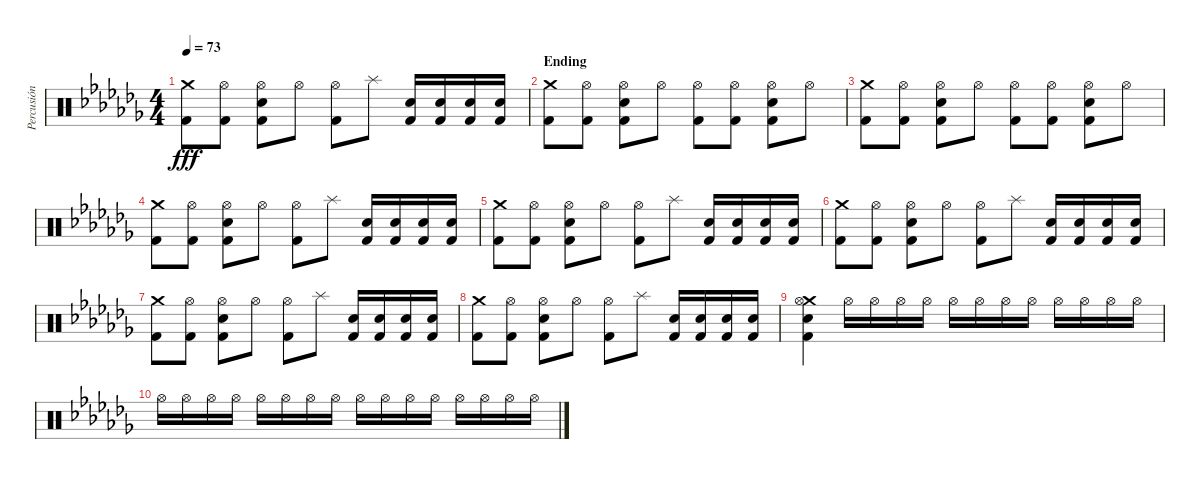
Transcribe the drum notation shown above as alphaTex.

\track ("Percusión" "Percusión") {instrument percussion}
\staff {score}
\articulation defaults
\ts (4 4)
\tempo 73
\clef neutral
\ks abminor
("Crash medium (hit)" "Kick (hit) 2").8{dy fff} ("Hi-Hat (open)" "Kick (hit) 2").8 ("Hi-Hat (open)" "Snare (hit) 2" "Kick (hit) 2").8 "Hi-Hat (open)".8 ("Hi-Hat (open)" "Kick (hit) 2").8 "Splash (hit)".8 ("Snare (hit) 2" "Kick (hit) 2").16 ("Snare (hit) 2" "Kick (hit) 2").16 ("Snare (hit) 2" "Kick (hit) 2").16 ("Snare (hit) 2" "Kick (hit) 2").16 |
\section ("" "Ending")
("Crash medium (hit)" "Kick (hit) 2").8 ("Hi-Hat (open)" "Kick (hit) 2").8 ("Hi-Hat (open)" "Snare (hit) 2" "Kick (hit) 2").8 "Hi-Hat (open)".8 ("Hi-Hat (open)" "Kick (hit) 2").8 ("Hi-Hat (open)" "Kick (hit) 2").8 ("Hi-Hat (open)" "Snare (hit) 2" "Kick (hit) 2").8 "Hi-Hat (open)".8 |
("Crash medium (hit)" "Kick (hit) 2").8 ("Hi-Hat (open)" "Kick (hit) 2").8 ("Hi-Hat (open)" "Snare (hit) 2" "Kick (hit) 2").8 "Hi-Hat (open)".8 ("Hi-Hat (open)" "Kick (hit) 2").8 ("Hi-Hat (open)" "Kick (hit) 2").8 ("Hi-Hat (open)" "Snare (hit) 2" "Kick (hit) 2").8 "Hi-Hat (open)".8 |
("Crash medium (hit)" "Kick (hit) 2").8 ("Hi-Hat (open)" "Kick (hit) 2").8 ("Hi-Hat (open)" "Snare (hit) 2" "Kick (hit) 2").8 "Hi-Hat (open)".8 ("Hi-Hat (open)" "Kick (hit) 2").8 "Splash (hit)".8 ("Snare (hit) 2" "Kick (hit) 2").16 ("Snare (hit) 2" "Kick (hit) 2").16 ("Snare (hit) 2" "Kick (hit) 2").16 ("Snare (hit) 2" "Kick (hit) 2").16 |
("Crash medium (hit)" "Kick (hit) 2").8 ("Hi-Hat (open)" "Kick (hit) 2").8 ("Hi-Hat (open)" "Snare (hit) 2" "Kick (hit) 2").8 "Hi-Hat (open)".8 ("Hi-Hat (open)" "Kick (hit) 2").8 "Splash (hit)".8 ("Snare (hit) 2" "Kick (hit) 2").16 ("Snare (hit) 2" "Kick (hit) 2").16 ("Snare (hit) 2" "Kick (hit) 2").16 ("Snare (hit) 2" "Kick (hit) 2").16 |
("Crash medium (hit)" "Kick (hit) 2").8 ("Hi-Hat (open)" "Kick (hit) 2").8 ("Hi-Hat (open)" "Snare (hit) 2" "Kick (hit) 2").8 "Hi-Hat (open)".8 ("Hi-Hat (open)" "Kick (hit) 2").8 "Splash (hit)".8 ("Snare (hit) 2" "Kick (hit) 2").16 ("Snare (hit) 2" "Kick (hit) 2").16 ("Snare (hit) 2" "Kick (hit) 2").16 ("Snare (hit) 2" "Kick (hit) 2").16 |
("Crash medium (hit)" "Kick (hit) 2").8 ("Hi-Hat (open)" "Kick (hit) 2").8 ("Hi-Hat (open)" "Snare (hit) 2" "Kick (hit) 2").8 "Hi-Hat (open)".8 ("Hi-Hat (open)" "Kick (hit) 2").8 "Splash (hit)".8 ("Snare (hit) 2" "Kick (hit) 2").16 ("Snare (hit) 2" "Kick (hit) 2").16 ("Snare (hit) 2" "Kick (hit) 2").16 ("Snare (hit) 2" "Kick (hit) 2").16 |
("Crash medium (hit)" "Kick (hit) 2").8 ("Hi-Hat (open)" "Kick (hit) 2").8 ("Hi-Hat (open)" "Snare (hit) 2" "Kick (hit) 2").8 "Hi-Hat (open)".8 ("Hi-Hat (open)" "Kick (hit) 2").8 "Splash (hit)".8 ("Snare (hit) 2" "Kick (hit) 2").16 ("Snare (hit) 2" "Kick (hit) 2").16 ("Snare (hit) 2" "Kick (hit) 2").16 ("Snare (hit) 2" "Kick (hit) 2").16 |
("Crash medium (hit)" "Hi-Hat (open)" "Snare (hit) 2" "Kick (hit) 2").4 "Hi-Hat (open)".16{volume 0} "Hi-Hat (open)".16 "Hi-Hat (open)".16 "Hi-Hat (open)".16 "Hi-Hat (open)".16 "Hi-Hat (open)".16 "Hi-Hat (open)".16 "Hi-Hat (open)".16 "Hi-Hat (open)".16 "Hi-Hat (open)".16 "Hi-Hat (open)".16 "Hi-Hat (open)".16 |
"Hi-Hat (open)".16 "Hi-Hat (open)".16 "Hi-Hat (open)".16 "Hi-Hat (open)".16 "Hi-Hat (open)".16 "Hi-Hat (open)".16 "Hi-Hat (open)".16 "Hi-Hat (open)".16 "Hi-Hat (open)".16 "Hi-Hat (open)".16 "Hi-Hat (open)".16 "Hi-Hat (open)".16 "Hi-Hat (open)".16 "Hi-Hat (open)".16 "Hi-Hat (open)".16 "Hi-Hat (open)".16
